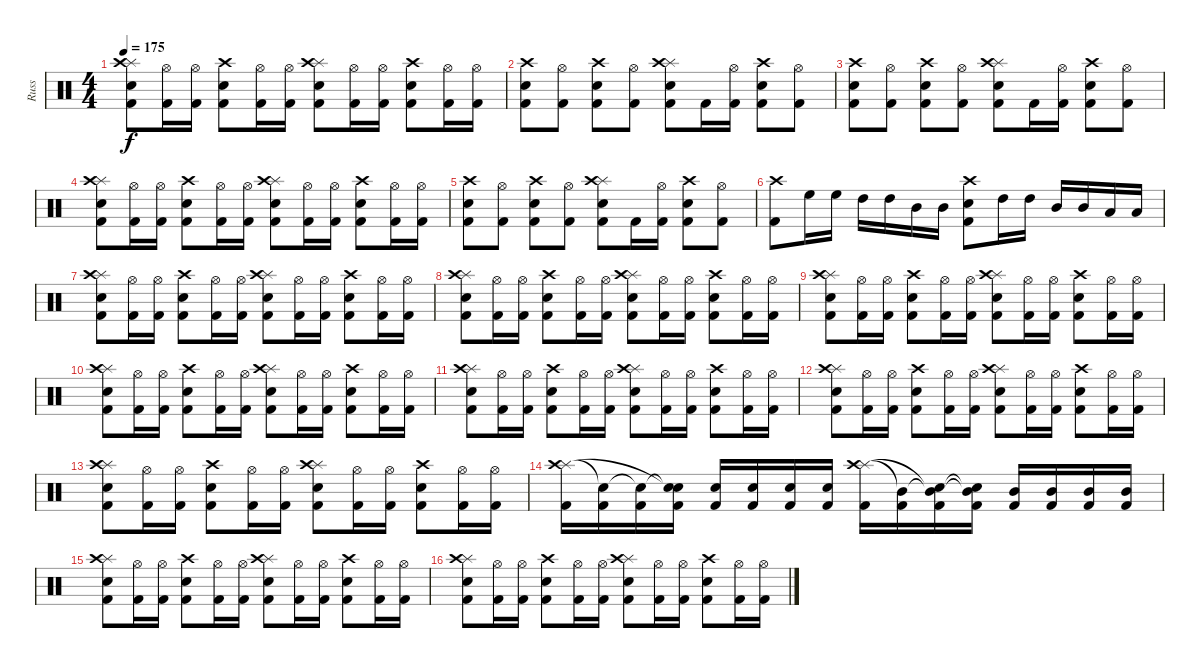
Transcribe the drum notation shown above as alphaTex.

\track ("Russ" "Russ") {instrument percussion}
\staff {score}
\articulation defaults
\ts (4 4)
\tempo 175
\clef neutral
\ks c
("Kick (hit) 2" "Snare (hit) 2" "Splash (hit)" "Crash high (hit)").8{dy f} ("Kick (hit) 2" "Hi-Hat (open)").16 ("Kick (hit) 2" "Hi-Hat (open)").16 ("Kick (hit) 2" "Snare (hit) 2" "Crash high (hit)").8 ("Kick (hit) 2" "Hi-Hat (open)").16 ("Kick (hit) 2" "Hi-Hat (open)").16 ("Kick (hit) 2" "Snare (hit) 2" "Splash (hit)" "Crash high (hit)").8 ("Kick (hit) 2" "Hi-Hat (open)").16 ("Kick (hit) 2" "Hi-Hat (open)").16 ("Kick (hit) 2" "Snare (hit) 2" "Crash high (hit)").8 ("Kick (hit) 2" "Hi-Hat (open)").16 ("Kick (hit) 2" "Hi-Hat (open)").16 |
("Kick (hit) 2" "Snare (hit) 2" "Crash high (hit)").8 ("Kick (hit) 2" "Hi-Hat (open)").8 ("Kick (hit) 2" "Snare (hit) 2" "Crash high (hit)").8 ("Kick (hit) 2" "Hi-Hat (open)").8 ("Kick (hit) 2" "Snare (hit) 2" "Splash (hit)" "Crash high (hit)").8 "Kick (hit) 2".16 ("Kick (hit) 2" "Hi-Hat (open)").16 ("Kick (hit) 2" "Snare (hit) 2" "Crash high (hit)").8 ("Kick (hit) 2" "Hi-Hat (open)").8 |
("Kick (hit) 2" "Snare (hit) 2" "Crash high (hit)").8 ("Kick (hit) 2" "Hi-Hat (open)").8 ("Kick (hit) 2" "Snare (hit) 2" "Crash high (hit)").8 ("Kick (hit) 2" "Hi-Hat (open)").8 ("Kick (hit) 2" "Snare (hit) 2" "Splash (hit)" "Crash high (hit)").8 "Kick (hit) 2".16 ("Kick (hit) 2" "Hi-Hat (open)").16 ("Kick (hit) 2" "Snare (hit) 2" "Crash high (hit)").8 ("Kick (hit) 2" "Hi-Hat (open)").8 |
("Kick (hit) 2" "Snare (hit) 2" "Splash (hit)" "Crash high (hit)").8 ("Kick (hit) 2" "Hi-Hat (open)").16 ("Kick (hit) 2" "Hi-Hat (open)").16 ("Kick (hit) 2" "Snare (hit) 2" "Crash high (hit)").8 ("Kick (hit) 2" "Hi-Hat (open)").16 ("Kick (hit) 2" "Hi-Hat (open)").16 ("Kick (hit) 2" "Snare (hit) 2" "Splash (hit)" "Crash high (hit)").8 ("Kick (hit) 2" "Hi-Hat (open)").16 ("Kick (hit) 2" "Hi-Hat (open)").16 ("Kick (hit) 2" "Snare (hit) 2" "Crash high (hit)").8 ("Kick (hit) 2" "Hi-Hat (open)").16 ("Kick (hit) 2" "Hi-Hat (open)").16 |
("Kick (hit) 2" "Snare (hit) 2" "Crash high (hit)").8 ("Kick (hit) 2" "Hi-Hat (open)").8 ("Kick (hit) 2" "Snare (hit) 2" "Crash high (hit)").8 ("Kick (hit) 2" "Hi-Hat (open)").8 ("Kick (hit) 2" "Snare (hit) 2" "Splash (hit)" "Crash high (hit)").8 "Kick (hit) 2".16 ("Kick (hit) 2" "Hi-Hat (open)").16 ("Kick (hit) 2" "Snare (hit) 2" "Crash high (hit)").8 ("Kick (hit) 2" "Hi-Hat (open)").8 |
("Kick (hit) 2" "Crash high (hit)").8 "High Floor Tom (hit)".16 "High Floor Tom (hit)".16 "High Tom (hit)".16 "High Tom (hit)".16 "Mid Tom (hit)".16 "Mid Tom (hit)".16 ("Kick (hit) 2" "Crash high (hit)" "Snare (hit) 2").8 "High Tom (hit)".16 "High Tom (hit)".16 "Mid Tom (hit)".16 "Mid Tom (hit)".16 "Low Tom (hit)".16 "Low Tom (hit)".16 |
("Kick (hit) 2" "Snare (hit) 2" "Splash (hit)" "Crash high (hit)").8 ("Kick (hit) 2" "Hi-Hat (open)").16 ("Kick (hit) 2" "Hi-Hat (open)").16 ("Kick (hit) 2" "Snare (hit) 2" "Crash high (hit)").8 ("Kick (hit) 2" "Hi-Hat (open)").16 ("Kick (hit) 2" "Hi-Hat (open)").16 ("Kick (hit) 2" "Snare (hit) 2" "Splash (hit)" "Crash high (hit)").8 ("Kick (hit) 2" "Hi-Hat (open)").16 ("Kick (hit) 2" "Hi-Hat (open)").16 ("Kick (hit) 2" "Snare (hit) 2" "Crash high (hit)").8 ("Kick (hit) 2" "Hi-Hat (open)").16 ("Kick (hit) 2" "Hi-Hat (open)").16 |
("Kick (hit) 2" "Snare (hit) 2" "Splash (hit)" "Crash high (hit)").8 ("Kick (hit) 2" "Hi-Hat (open)").16 ("Kick (hit) 2" "Hi-Hat (open)").16 ("Kick (hit) 2" "Snare (hit) 2" "Crash high (hit)").8 ("Kick (hit) 2" "Hi-Hat (open)").16 ("Kick (hit) 2" "Hi-Hat (open)").16 ("Kick (hit) 2" "Snare (hit) 2" "Splash (hit)" "Crash high (hit)").8 ("Kick (hit) 2" "Hi-Hat (open)").16 ("Kick (hit) 2" "Hi-Hat (open)").16 ("Kick (hit) 2" "Snare (hit) 2" "Crash high (hit)").8 ("Kick (hit) 2" "Hi-Hat (open)").16 ("Kick (hit) 2" "Hi-Hat (open)").16 |
("Kick (hit) 2" "Snare (hit) 2" "Splash (hit)" "Crash high (hit)").8 ("Kick (hit) 2" "Hi-Hat (open)").16 ("Kick (hit) 2" "Hi-Hat (open)").16 ("Kick (hit) 2" "Snare (hit) 2" "Crash high (hit)").8 ("Kick (hit) 2" "Hi-Hat (open)").16 ("Kick (hit) 2" "Hi-Hat (open)").16 ("Kick (hit) 2" "Snare (hit) 2" "Splash (hit)" "Crash high (hit)").8 ("Kick (hit) 2" "Hi-Hat (open)").16 ("Kick (hit) 2" "Hi-Hat (open)").16 ("Kick (hit) 2" "Snare (hit) 2" "Crash high (hit)").8 ("Kick (hit) 2" "Hi-Hat (open)").16 ("Kick (hit) 2" "Hi-Hat (open)").16 |
("Kick (hit) 2" "Snare (hit) 2" "Splash (hit)" "Crash high (hit)").8 ("Kick (hit) 2" "Hi-Hat (open)").16 ("Kick (hit) 2" "Hi-Hat (open)").16 ("Kick (hit) 2" "Snare (hit) 2" "Crash high (hit)").8 ("Kick (hit) 2" "Hi-Hat (open)").16 ("Kick (hit) 2" "Hi-Hat (open)").16 ("Kick (hit) 2" "Snare (hit) 2" "Splash (hit)" "Crash high (hit)").8 ("Kick (hit) 2" "Hi-Hat (open)").16 ("Kick (hit) 2" "Hi-Hat (open)").16 ("Kick (hit) 2" "Snare (hit) 2" "Crash high (hit)").8 ("Kick (hit) 2" "Hi-Hat (open)").16 ("Kick (hit) 2" "Hi-Hat (open)").16 |
("Kick (hit) 2" "Snare (hit) 2" "Splash (hit)" "Crash high (hit)").8 ("Kick (hit) 2" "Hi-Hat (open)").16 ("Kick (hit) 2" "Hi-Hat (open)").16 ("Kick (hit) 2" "Snare (hit) 2" "Crash high (hit)").8 ("Kick (hit) 2" "Hi-Hat (open)").16 ("Kick (hit) 2" "Hi-Hat (open)").16 ("Kick (hit) 2" "Snare (hit) 2" "Splash (hit)" "Crash high (hit)").8 ("Kick (hit) 2" "Hi-Hat (open)").16 ("Kick (hit) 2" "Hi-Hat (open)").16 ("Kick (hit) 2" "Snare (hit) 2" "Crash high (hit)").8 ("Kick (hit) 2" "Hi-Hat (open)").16 ("Kick (hit) 2" "Hi-Hat (open)").16 |
("Kick (hit) 2" "Snare (hit) 2" "Splash (hit)" "Crash high (hit)").8 ("Kick (hit) 2" "Hi-Hat (open)").16 ("Kick (hit) 2" "Hi-Hat (open)").16 ("Kick (hit) 2" "Snare (hit) 2" "Crash high (hit)").8 ("Kick (hit) 2" "Hi-Hat (open)").16 ("Kick (hit) 2" "Hi-Hat (open)").16 ("Kick (hit) 2" "Snare (hit) 2" "Splash (hit)" "Crash high (hit)").8 ("Kick (hit) 2" "Hi-Hat (open)").16 ("Kick (hit) 2" "Hi-Hat (open)").16 ("Kick (hit) 2" "Snare (hit) 2" "Crash high (hit)").8 ("Kick (hit) 2" "Hi-Hat (open)").16 ("Kick (hit) 2" "Hi-Hat (open)").16 |
("Kick (hit) 2" "Snare (hit) 2" "Splash (hit)" "Crash high (hit)").8 ("Kick (hit) 2" "Hi-Hat (open)").16 ("Kick (hit) 2" "Hi-Hat (open)").16 ("Kick (hit) 2" "Snare (hit) 2" "Crash high (hit)").8 ("Kick (hit) 2" "Hi-Hat (open)").16 ("Kick (hit) 2" "Hi-Hat (open)").16 ("Kick (hit) 2" "Snare (hit) 2" "Splash (hit)" "Crash high (hit)").8 ("Kick (hit) 2" "Hi-Hat (open)").16 ("Kick (hit) 2" "Hi-Hat (open)").16 ("Kick (hit) 2" "Snare (hit) 2" "Crash high (hit)").8 ("Kick (hit) 2" "Hi-Hat (open)").16 ("Kick (hit) 2" "Hi-Hat (open)").16 |
("Kick (hit) 2" "Splash (hit)" "Crash high (hit)").16 ("Kick (hit) 2" "Snare (hit) 2"{t}).16 ("Kick (hit) 2" "Snare (hit) 2"{t}).16 ("Kick (hit) 2" "Snare (hit) 2"{t} "Snare (hit)"{t}).16 ("Kick (hit) 2" "Snare (hit) 2").16 ("Kick (hit) 2" "Snare (hit) 2").16 ("Kick (hit) 2" "Snare (hit) 2").16 ("Kick (hit) 2" "Snare (hit) 2").16 ("Kick (hit) 2" "Splash (hit)" "Crash high (hit)").16 ("Kick (hit) 2" "Mid Tom (hit)"{t}).16 ("Kick (hit) 2" "Mid Tom (hit)"{t} "Snare (hit)"{t}).16 ("Kick (hit) 2" "Mid Tom (hit)"{t} "Snare (hit)"{t}).16 ("Kick (hit) 2" "Mid Tom (hit)").16 ("Kick (hit) 2" "Mid Tom (hit)").16 ("Kick (hit) 2" "Mid Tom (hit)").16 ("Kick (hit) 2" "Mid Tom (hit)").16 |
("Kick (hit) 2" "Snare (hit) 2" "Splash (hit)" "Crash high (hit)").8 ("Kick (hit) 2" "Hi-Hat (open)").16 ("Kick (hit) 2" "Hi-Hat (open)").16 ("Kick (hit) 2" "Snare (hit) 2" "Crash high (hit)").8 ("Kick (hit) 2" "Hi-Hat (open)").16 ("Kick (hit) 2" "Hi-Hat (open)").16 ("Kick (hit) 2" "Snare (hit) 2" "Splash (hit)" "Crash high (hit)").8 ("Kick (hit) 2" "Hi-Hat (open)").16 ("Kick (hit) 2" "Hi-Hat (open)").16 ("Kick (hit) 2" "Snare (hit) 2" "Crash high (hit)").8 ("Kick (hit) 2" "Hi-Hat (open)").16 ("Kick (hit) 2" "Hi-Hat (open)").16 |
("Kick (hit) 2" "Snare (hit) 2" "Splash (hit)" "Crash high (hit)").8 ("Kick (hit) 2" "Hi-Hat (open)").16 ("Kick (hit) 2" "Hi-Hat (open)").16 ("Kick (hit) 2" "Snare (hit) 2" "Crash high (hit)").8 ("Kick (hit) 2" "Hi-Hat (open)").16 ("Kick (hit) 2" "Hi-Hat (open)").16 ("Kick (hit) 2" "Snare (hit) 2" "Splash (hit)" "Crash high (hit)").8 ("Kick (hit) 2" "Hi-Hat (open)").16 ("Kick (hit) 2" "Hi-Hat (open)").16 ("Kick (hit) 2" "Snare (hit) 2" "Crash high (hit)").8 ("Kick (hit) 2" "Hi-Hat (open)").16 ("Kick (hit) 2" "Hi-Hat (open)").16
